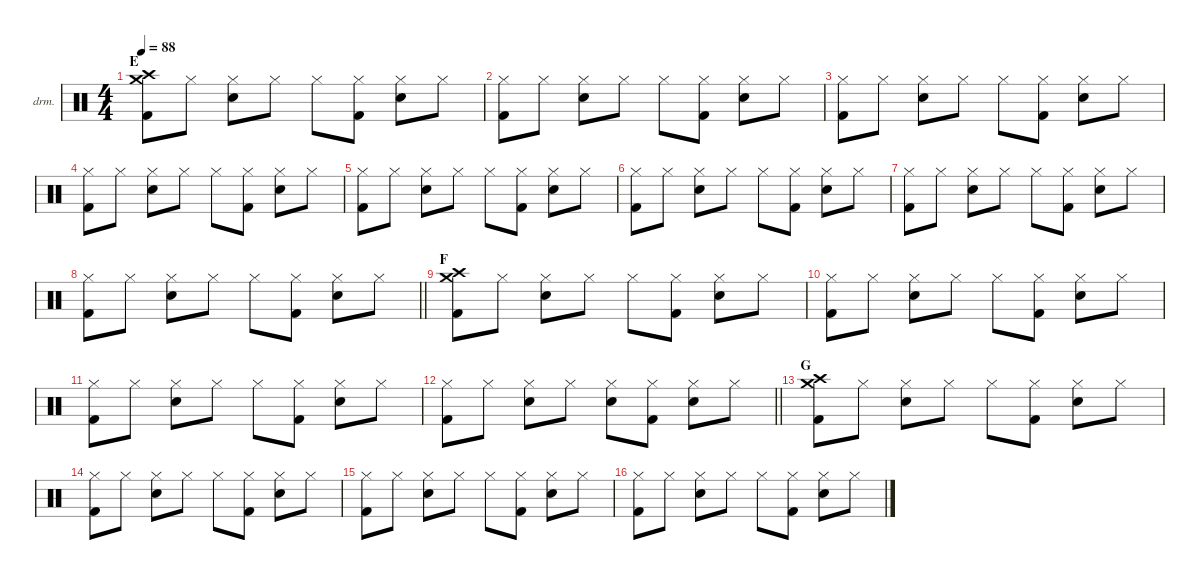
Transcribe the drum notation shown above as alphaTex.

\defaultSystemsLayout 4
\hideDynamics
\bracketExtendMode nobrackets
\firstSystemTrackNameOrientation horizontal
\otherSystemsTrackNameOrientation horizontal
\track ("Percussie" "drm.") {instrument percussion}
\staff {score}
\articulation defaults
\ts (4 4)
\section ("" "E")
\tempo 88
\clef neutral
\ks c
("Crash high (hit)" "Crash medium (hit)" "Kick (hit) 2").8{dy f} "Hi-Hat (closed)".8 ("Hi-Hat (closed)" "Snare (hit) 2").8 "Hi-Hat (closed)".8 "Hi-Hat (closed)".8 ("Hi-Hat (closed)" "Kick (hit) 2").8 ("Hi-Hat (closed)" "Snare (hit) 2").8 "Hi-Hat (closed)".8 |
("Hi-Hat (closed)" "Kick (hit) 2").8 "Hi-Hat (closed)".8 ("Hi-Hat (closed)" "Snare (hit) 2").8 "Hi-Hat (closed)".8 "Hi-Hat (closed)".8 ("Hi-Hat (closed)" "Kick (hit) 2").8 ("Hi-Hat (closed)" "Snare (hit) 2").8 "Hi-Hat (closed)".8 |
("Hi-Hat (closed)" "Kick (hit) 2").8 "Hi-Hat (closed)".8 ("Hi-Hat (closed)" "Snare (hit) 2").8 "Hi-Hat (closed)".8 "Hi-Hat (closed)".8 ("Hi-Hat (closed)" "Kick (hit) 2").8 ("Hi-Hat (closed)" "Snare (hit) 2").8 "Hi-Hat (closed)".8 |
("Hi-Hat (closed)" "Kick (hit) 2").8 "Hi-Hat (closed)".8 ("Hi-Hat (closed)" "Snare (hit) 2").8 "Hi-Hat (closed)".8 "Hi-Hat (closed)".8 ("Hi-Hat (closed)" "Kick (hit) 2").8 ("Hi-Hat (closed)" "Snare (hit) 2").8 "Hi-Hat (closed)".8 |
("Hi-Hat (closed)" "Kick (hit) 2").8 "Hi-Hat (closed)".8 ("Hi-Hat (closed)" "Snare (hit) 2").8 "Hi-Hat (closed)".8 "Hi-Hat (closed)".8 ("Hi-Hat (closed)" "Kick (hit) 2").8 ("Hi-Hat (closed)" "Snare (hit) 2").8 "Hi-Hat (closed)".8 |
("Hi-Hat (closed)" "Kick (hit) 2").8 "Hi-Hat (closed)".8 ("Hi-Hat (closed)" "Snare (hit) 2").8 "Hi-Hat (closed)".8 "Hi-Hat (closed)".8 ("Hi-Hat (closed)" "Kick (hit) 2").8 ("Hi-Hat (closed)" "Snare (hit) 2").8 "Hi-Hat (closed)".8 |
("Hi-Hat (closed)" "Kick (hit) 2").8 "Hi-Hat (closed)".8 ("Hi-Hat (closed)" "Snare (hit) 2").8 "Hi-Hat (closed)".8 "Hi-Hat (closed)".8 ("Hi-Hat (closed)" "Kick (hit) 2").8 ("Hi-Hat (closed)" "Snare (hit) 2").8 "Hi-Hat (closed)".8 |
\barLineRight lightlight
("Hi-Hat (closed)" "Kick (hit) 2").8 "Hi-Hat (closed)".8 ("Hi-Hat (closed)" "Snare (hit) 2").8 "Hi-Hat (closed)".8 "Hi-Hat (closed)".8 ("Hi-Hat (closed)" "Kick (hit) 2").8 ("Hi-Hat (closed)" "Snare (hit) 2").8 "Hi-Hat (closed)".8 |
\section ("" "F")
("Crash medium (hit)" "Crash high (hit)" "Kick (hit) 2").8 "Hi-Hat (closed)".8 ("Hi-Hat (closed)" "Snare (hit) 2").8 "Hi-Hat (closed)".8 "Hi-Hat (closed)".8 ("Hi-Hat (closed)" "Kick (hit) 2").8 ("Hi-Hat (closed)" "Snare (hit) 2").8 "Hi-Hat (closed)".8 |
("Hi-Hat (closed)" "Kick (hit) 2").8 "Hi-Hat (closed)".8 ("Hi-Hat (closed)" "Snare (hit) 2").8 "Hi-Hat (closed)".8 "Hi-Hat (closed)".8 ("Hi-Hat (closed)" "Kick (hit) 2").8 ("Hi-Hat (closed)" "Snare (hit) 2").8 "Hi-Hat (closed)".8 |
("Hi-Hat (closed)" "Kick (hit) 2").8 "Hi-Hat (closed)".8 ("Hi-Hat (closed)" "Snare (hit) 2").8 "Hi-Hat (closed)".8 "Hi-Hat (closed)".8 ("Hi-Hat (closed)" "Kick (hit) 2").8 ("Hi-Hat (closed)" "Snare (hit) 2").8 "Hi-Hat (closed)".8 |
\barLineRight lightlight
("Hi-Hat (closed)" "Kick (hit) 2").8 "Hi-Hat (closed)".8 ("Hi-Hat (closed)" "Snare (hit) 2").8 "Hi-Hat (closed)".8 ("Hi-Hat (closed)" "Snare (hit) 2").8 ("Hi-Hat (closed)" "Kick (hit) 2").8 ("Hi-Hat (closed)" "Snare (hit) 2").8 "Hi-Hat (closed)".8 |
\section ("" "G")
("Crash high (hit)" "Crash medium (hit)" "Kick (hit) 2").8 "Hi-Hat (closed)".8 ("Hi-Hat (closed)" "Snare (hit) 2").8 "Hi-Hat (closed)".8 "Hi-Hat (closed)".8 ("Hi-Hat (closed)" "Kick (hit) 2").8 ("Hi-Hat (closed)" "Snare (hit) 2").8 "Hi-Hat (closed)".8 |
("Hi-Hat (closed)" "Kick (hit) 2").8 "Hi-Hat (closed)".8 ("Hi-Hat (closed)" "Snare (hit) 2").8 "Hi-Hat (closed)".8 "Hi-Hat (closed)".8 ("Hi-Hat (closed)" "Kick (hit) 2").8 ("Hi-Hat (closed)" "Snare (hit) 2").8 "Hi-Hat (closed)".8 |
("Hi-Hat (closed)" "Kick (hit) 2").8 "Hi-Hat (closed)".8 ("Hi-Hat (closed)" "Snare (hit) 2").8 "Hi-Hat (closed)".8 "Hi-Hat (closed)".8 ("Hi-Hat (closed)" "Kick (hit) 2").8 ("Hi-Hat (closed)" "Snare (hit) 2").8 "Hi-Hat (closed)".8 |
("Hi-Hat (closed)" "Kick (hit) 2").8 "Hi-Hat (closed)".8 ("Hi-Hat (closed)" "Snare (hit) 2").8 "Hi-Hat (closed)".8 "Hi-Hat (closed)".8 ("Hi-Hat (closed)" "Kick (hit) 2").8 ("Hi-Hat (closed)" "Snare (hit) 2").8 "Hi-Hat (closed)".8
